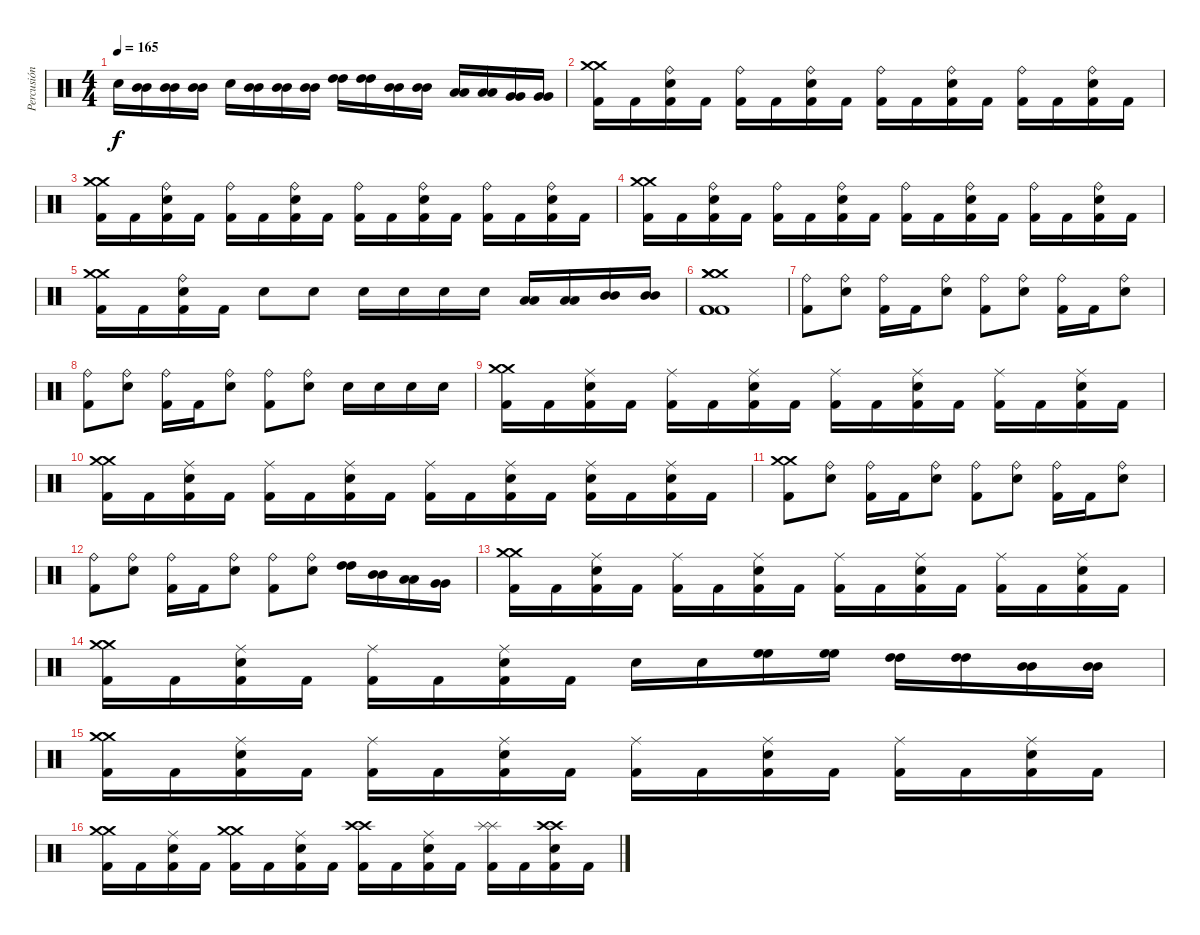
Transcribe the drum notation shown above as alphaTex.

\track ("Percusión" "Percusión") {instrument percussion}
\staff {score}
\articulation defaults
\ts (4 4)
\tempo 165
\clef neutral
\ks c "Snare (hit) 2".16{dy f}
("Mid Tom (hit)" "Mid Tom (hit)").16 ("Mid Tom (hit)" "Mid Tom (hit)").16 ("Mid Tom (hit)" "Mid Tom (hit)").16 "Snare (hit) 2".16 ("Mid Tom (hit)" "Mid Tom (hit)").16 ("Mid Tom (hit)" "Mid Tom (hit)").16 ("Mid Tom (hit)" "Mid Tom (hit)").16 ("High Tom (hit)" "High Tom (hit)").16 ("High Tom (hit)" "High Tom (hit)").16 ("Mid Tom (hit)" "Mid Tom (hit)").16 ("Mid Tom (hit)" "Mid Tom (hit)").16 ("Low Tom (hit)" "Low Tom (hit)").16 ("Low Tom (hit)" "Low Tom (hit)").16 ("Very Low Tom (hit)" "Very Low Tom (hit)").16 ("Very Low Tom (hit)" "Very Low Tom (hit)").16 |
("Crash medium (hit)" "Crash medium (hit)" "Kick (hit) 2").16 "Kick (hit) 2".16 ("Ride (bell)" "Snare (hit) 2" "Kick (hit) 2").16 "Kick (hit) 2".16 ("Ride (bell)" "Kick (hit) 2").16 "Kick (hit) 2".16 ("Ride (bell)" "Snare (hit) 2" "Kick (hit) 2").16 "Kick (hit) 2".16 ("Ride (bell)" "Kick (hit) 2").16 "Kick (hit) 2".16 ("Ride (bell)" "Snare (hit) 2" "Kick (hit) 2").16 "Kick (hit) 2".16 ("Ride (bell)" "Kick (hit) 2").16 "Kick (hit) 2".16 ("Ride (bell)" "Snare (hit) 2" "Kick (hit) 2").16 "Kick (hit) 2".16 |
("Crash medium (hit)" "Crash medium (hit)" "Kick (hit) 2").16 "Kick (hit) 2".16 ("Ride (bell)" "Snare (hit) 2" "Kick (hit) 2").16 "Kick (hit) 2".16 ("Ride (bell)" "Kick (hit) 2").16 "Kick (hit) 2".16 ("Ride (bell)" "Snare (hit) 2" "Kick (hit) 2").16 "Kick (hit) 2".16 ("Ride (bell)" "Kick (hit) 2").16 "Kick (hit) 2".16 ("Ride (bell)" "Snare (hit) 2" "Kick (hit) 2").16 "Kick (hit) 2".16 ("Ride (bell)" "Kick (hit) 2").16 "Kick (hit) 2".16 ("Ride (bell)" "Snare (hit) 2" "Kick (hit) 2").16 "Kick (hit) 2".16 |
("Crash medium (hit)" "Crash medium (hit)" "Kick (hit) 2").16 "Kick (hit) 2".16 ("Ride (bell)" "Snare (hit) 2" "Kick (hit) 2").16 "Kick (hit) 2".16 ("Ride (bell)" "Kick (hit) 2").16 "Kick (hit) 2".16 ("Ride (bell)" "Snare (hit) 2" "Kick (hit) 2").16 "Kick (hit) 2".16 ("Ride (bell)" "Kick (hit) 2").16 "Kick (hit) 2".16 ("Ride (bell)" "Snare (hit) 2" "Kick (hit) 2").16 "Kick (hit) 2".16 ("Ride (bell)" "Kick (hit) 2").16 "Kick (hit) 2".16 ("Ride (bell)" "Snare (hit) 2" "Kick (hit) 2").16 "Kick (hit) 2".16 |
("Crash medium (hit)" "Crash medium (hit)" "Kick (hit) 2").16 "Kick (hit) 2".16 ("Ride (bell)" "Snare (hit) 2" "Kick (hit) 2").16 "Kick (hit) 2".16 "Snare (hit) 2".8 "Snare (hit) 2".8 "Snare (hit) 2".16 "Snare (hit) 2".16 "Snare (hit) 2".16 "Snare (hit) 2".16 ("Low Tom (hit)" "Low Tom (hit)").16 ("Low Tom (hit)" "Low Tom (hit)").16 ("Mid Tom (hit)" "Mid Tom (hit)").16 ("Mid Tom (hit)" "Mid Tom (hit)").16 |
("Crash medium (hit)" "Crash medium (hit)" "Crash medium (hit)" "Kick (hit) 2" "Kick (hit) 2" "Kick (hit) 2").1 |
("Ride (bell)" "Kick (hit) 2").8 ("Ride (bell)" "Snare (hit) 2").8 ("Ride (bell)" "Kick (hit) 2").16 "Kick (hit) 2".16 ("Ride (bell)" "Snare (hit) 2").8 ("Ride (bell)" "Kick (hit) 2").8 ("Ride (bell)" "Snare (hit) 2").8 ("Ride (bell)" "Kick (hit) 2").16 "Kick (hit) 2".16 ("Ride (bell)" "Snare (hit) 2").8 |
("Ride (bell)" "Kick (hit) 2").8 ("Ride (bell)" "Snare (hit) 2").8 ("Ride (bell)" "Kick (hit) 2").16 "Kick (hit) 2".16 ("Ride (bell)" "Snare (hit) 2").8 ("Ride (bell)" "Kick (hit) 2").8 ("Ride (bell)" "Snare (hit) 2").8 "Snare (hit) 2".16 "Snare (hit) 2".16 "Snare (hit) 2".16 "Snare (hit) 2".16 |
("Crash medium (hit)" "Crash medium (hit)" "Kick (hit) 2").16 "Kick (hit) 2".16 ("Ride (middle)" "Snare (hit) 2" "Kick (hit) 2").16 "Kick (hit) 2".16 ("Ride (middle)" "Kick (hit) 2").16 "Kick (hit) 2".16 ("Ride (middle)" "Snare (hit) 2" "Kick (hit) 2").16 "Kick (hit) 2".16 ("Ride (middle)" "Kick (hit) 2").16 "Kick (hit) 2".16 ("Ride (middle)" "Snare (hit) 2" "Kick (hit) 2").16 "Kick (hit) 2".16 ("Ride (middle)" "Kick (hit) 2").16 "Kick (hit) 2".16 ("Ride (middle)" "Snare (hit) 2" "Kick (hit) 2").16 "Kick (hit) 2".16 |
("Crash medium (hit)" "Crash medium (hit)" "Kick (hit) 2").16 "Kick (hit) 2".16 ("Ride (middle)" "Snare (hit) 2" "Kick (hit) 2").16 "Kick (hit) 2".16 ("Ride (middle)" "Kick (hit) 2").16 "Kick (hit) 2".16 ("Ride (middle)" "Snare (hit) 2" "Kick (hit) 2").16 "Kick (hit) 2".16 ("Ride (middle)" "Kick (hit) 2").16 "Kick (hit) 2".16 ("Ride (middle)" "Snare (hit) 2" "Kick (hit) 2").16 "Kick (hit) 2".16 ("Ride (middle)" "Snare (hit) 2" "Kick (hit) 2").16 "Kick (hit) 2".16 ("Ride (middle)" "Snare (hit) 2" "Kick (hit) 2").16 "Kick (hit) 2".16 |
("Crash medium (hit)" "Crash medium (hit)" "Kick (hit) 2").8 ("Ride (bell)" "Snare (hit) 2").8 ("Ride (bell)" "Kick (hit) 2").16 "Kick (hit) 2".16 ("Ride (bell)" "Snare (hit) 2").8 ("Ride (bell)" "Kick (hit) 2").8 ("Ride (bell)" "Snare (hit) 2").8 ("Ride (bell)" "Kick (hit) 2").16 "Kick (hit) 2".16 ("Ride (bell)" "Snare (hit) 2").8 |
("Ride (bell)" "Kick (hit) 2").8 ("Ride (bell)" "Snare (hit) 2").8 ("Ride (bell)" "Kick (hit) 2").16 "Kick (hit) 2".16 ("Ride (bell)" "Snare (hit) 2").8 ("Ride (bell)" "Kick (hit) 2").8 ("Ride (bell)" "Snare (hit) 2").8 ("High Tom (hit)" "High Tom (hit)").16 ("Mid Tom (hit)" "Mid Tom (hit)").16 ("Low Tom (hit)" "Low Tom (hit)").16 ("Very Low Tom (hit)" "Very Low Tom (hit)").16 |
("Crash medium (hit)" "Crash medium (hit)" "Kick (hit) 2").16 "Kick (hit) 2".16 ("Ride (middle)" "Snare (hit) 2" "Kick (hit) 2").16 "Kick (hit) 2".16 ("Ride (middle)" "Kick (hit) 2").16 "Kick (hit) 2".16 ("Ride (middle)" "Snare (hit) 2" "Kick (hit) 2").16 "Kick (hit) 2".16 ("Ride (middle)" "Kick (hit) 2").16 "Kick (hit) 2".16 ("Ride (middle)" "Snare (hit) 2" "Kick (hit) 2").16 "Kick (hit) 2".16 ("Ride (middle)" "Kick (hit) 2").16 "Kick (hit) 2".16 ("Ride (middle)" "Snare (hit) 2" "Kick (hit) 2").16 "Kick (hit) 2".16 |
("Crash medium (hit)" "Crash medium (hit)" "Kick (hit) 2").16 "Kick (hit) 2".16 ("Ride (middle)" "Snare (hit) 2" "Kick (hit) 2").16 "Kick (hit) 2".16 ("Ride (middle)" "Kick (hit) 2").16 "Kick (hit) 2".16 ("Ride (middle)" "Snare (hit) 2" "Kick (hit) 2").16 "Kick (hit) 2".16 "Snare (hit) 2".16 "Snare (hit) 2".16 ("High Floor Tom (hit)" "High Floor Tom (hit)").16 ("High Floor Tom (hit)" "High Floor Tom (hit)").16 ("High Tom (hit)" "High Tom (hit)").16 ("High Tom (hit)" "High Tom (hit)").16 ("Mid Tom (hit)" "Mid Tom (hit)").16 ("Mid Tom (hit)" "Mid Tom (hit)").16 |
("Crash medium (hit)" "Crash medium (hit)" "Kick (hit) 2").16 "Kick (hit) 2".16 ("Ride (middle)" "Snare (hit) 2" "Kick (hit) 2").16 "Kick (hit) 2".16 ("Ride (middle)" "Kick (hit) 2").16 "Kick (hit) 2".16 ("Ride (middle)" "Snare (hit) 2" "Kick (hit) 2").16 "Kick (hit) 2".16 ("Ride (middle)" "Kick (hit) 2").16 "Kick (hit) 2".16 ("Ride (middle)" "Snare (hit) 2" "Kick (hit) 2").16 "Kick (hit) 2".16 ("Ride (middle)" "Kick (hit) 2").16 "Kick (hit) 2".16 ("Ride (middle)" "Snare (hit) 2" "Kick (hit) 2").16 "Kick (hit) 2".16 |
("Crash medium (hit)" "Crash medium (hit)" "Kick (hit) 2").16 "Kick (hit) 2".16 ("Ride (middle)" "Snare (hit) 2" "Kick (hit) 2").16 "Kick (hit) 2".16 ("Crash medium (hit)" "Crash medium (hit)" "Kick (hit) 2").16 "Kick (hit) 2".16 ("Ride (middle)" "Snare (hit) 2" "Kick (hit) 2").16 "Kick (hit) 2".16 ("Crash high (hit)" "Crash high (hit)" "Kick (hit) 2").16 "Kick (hit) 2".16 ("Ride (middle)" "Snare (hit) 2" "Kick (hit) 2").16 "Kick (hit) 2".16 ("Splash (hit)" "Splash (hit)" "Kick (hit) 2").16 "Kick (hit) 2".16 ("Crash high (hit)" "Crash high (hit)" "Snare (hit) 2" "Kick (hit) 2").16 "Kick (hit) 2".16
